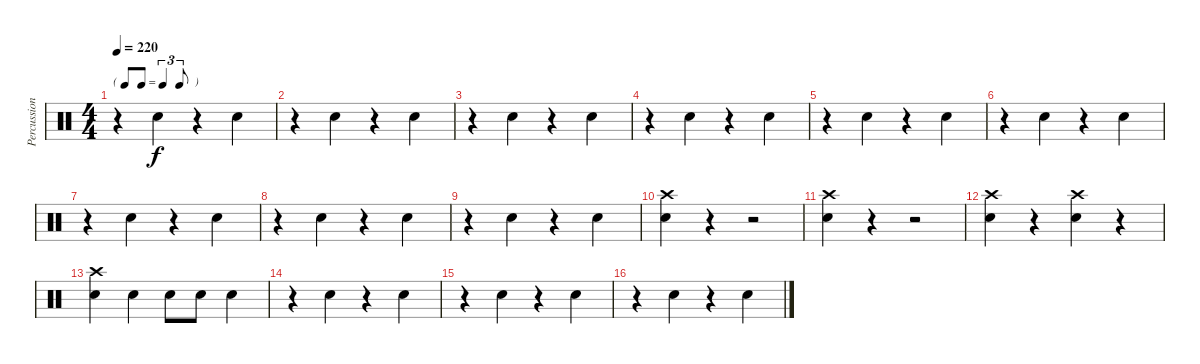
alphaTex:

\track ("Percussion" "Percussion") {instrument percussion}
\staff {score}
\articulation defaults
\ts (4 4)
\tf triplet8th
\tempo 220
\clef neutral
\ks c
r.4{dy f} "Snare (hit) 2".4 r.4 "Snare (hit) 2".4 |
r.4 "Snare (hit) 2".4 r.4 "Snare (hit) 2".4 |
r.4 "Snare (hit) 2".4 r.4 "Snare (hit) 2".4 |
r.4 "Snare (hit) 2".4 r.4 "Snare (hit) 2".4 |
r.4 "Snare (hit) 2".4 r.4 "Snare (hit) 2".4 |
r.4 "Snare (hit) 2".4 r.4 "Snare (hit) 2".4 |
r.4 "Snare (hit) 2".4 r.4 "Snare (hit) 2".4 |
r.4 "Snare (hit) 2".4 r.4 "Snare (hit) 2".4 |
r.4 "Snare (hit) 2".4 r.4 "Snare (hit) 2".4 |
("Snare (hit) 2" "Crash high (hit)").4 r.4 r.2 |
("Snare (hit) 2" "Crash high (hit)").4 r.4 r.2 |
("Snare (hit) 2" "Crash high (hit)").4 r.4 ("Snare (hit) 2" "Crash high (hit)").4 r.4 |
("Snare (hit) 2" "Crash high (hit)").4 "Snare (hit) 2".4 "Snare (hit) 2".8 "Snare (hit) 2".8 "Snare (hit) 2".4 |
r.4 "Snare (hit) 2".4 r.4 "Snare (hit) 2".4 |
r.4 "Snare (hit) 2".4 r.4 "Snare (hit) 2".4 |
r.4 "Snare (hit) 2".4 r.4 "Snare (hit) 2".4
